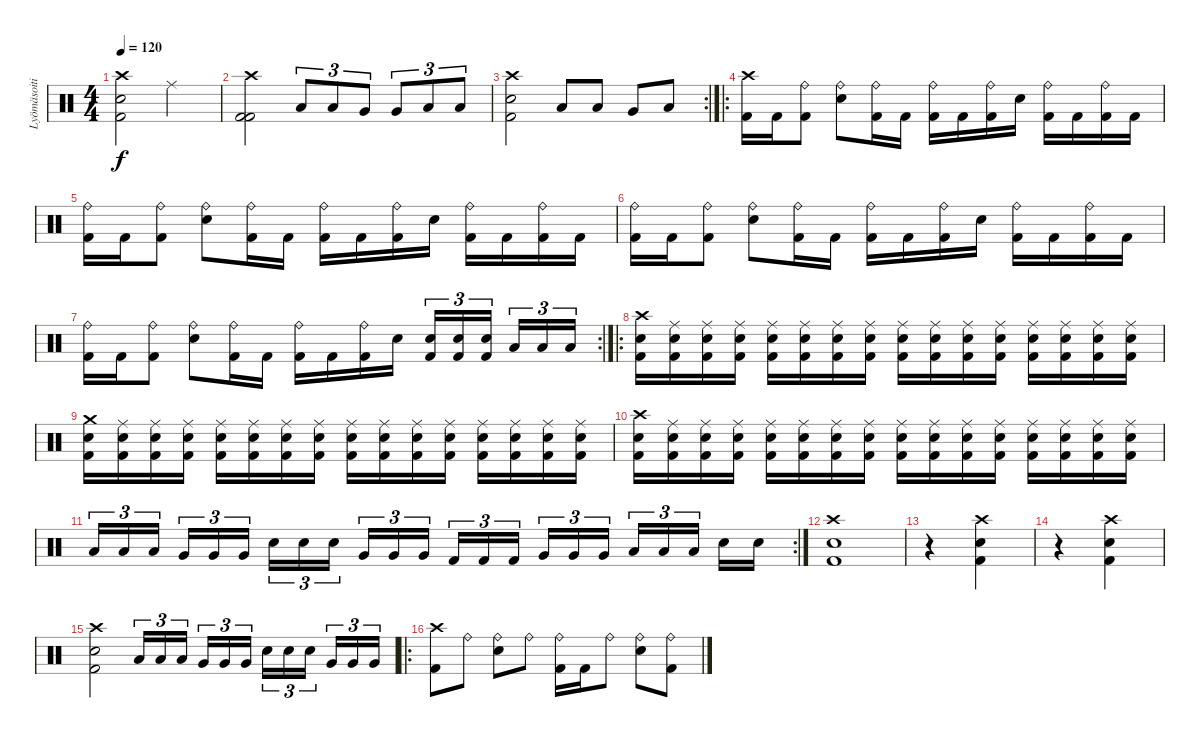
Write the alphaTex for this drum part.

\track ("Lyömäsoitin" "Lyömäsoiti") {instrument percussion}
\staff {score}
\articulation defaults
\ts (4 4)
\tempo 120
\clef neutral
\ks c
("Crash high (hit)" "Electric Snare (hit)" "Kick (hit) 2").2{dy f} "Ride (middle)".2 |
("Crash high (hit)" "Kick (hit) 2" "Kick (hit) 2").2 "Low Tom (hit)".8{tu (3 2)} "Low Tom (hit)".8{tu (3 2)} "Very Low Tom (hit)".8{tu (3 2)} "Very Low Tom (hit)".8{tu (3 2)} "Low Floor Tom (hit)".8{tu (3 2)} "Low Floor Tom (hit)".8{tu (3 2)} |
\rc 2
("Crash high (hit)" "Electric Snare (hit)" "Kick (hit) 2").2 "Low Tom (hit)".8 "Low Tom (hit)".8 "Very Low Tom (hit)".8 "Low Floor Tom (hit)".8 |
\ro
("Crash high (hit)" "Kick (hit) 2").16 "Kick (hit) 2".16 ("Ride (bell)" "Kick (hit) 2").8 ("Ride (bell)" "Electric Snare (hit)").8 ("Ride (bell)" "Kick (hit) 2").16 "Kick (hit) 2".16 ("Ride (bell)" "Kick (hit) 2").16 "Kick (hit) 2".16 ("Ride (bell)" "Kick (hit) 2").16 "Electric Snare (hit)".16 ("Ride (bell)" "Kick (hit) 2").16 "Kick (hit) 2".16 ("Ride (bell)" "Kick (hit) 2").16 "Kick (hit) 2".16 |
("Ride (bell)" "Kick (hit) 2").16 "Kick (hit) 2".16 ("Ride (bell)" "Kick (hit) 2").8 ("Ride (bell)" "Electric Snare (hit)").8 ("Ride (bell)" "Kick (hit) 2").16 "Kick (hit) 2".16 ("Ride (bell)" "Kick (hit) 2").16 "Kick (hit) 2".16 ("Ride (bell)" "Kick (hit) 2").16 "Electric Snare (hit)".16 ("Ride (bell)" "Kick (hit) 2").16 "Kick (hit) 2".16 ("Ride (bell)" "Kick (hit) 2").16 "Kick (hit) 2".16 |
("Ride (bell)" "Kick (hit) 2").16 "Kick (hit) 2".16 ("Ride (bell)" "Kick (hit) 2").8 ("Ride (bell)" "Electric Snare (hit)").8 ("Ride (bell)" "Kick (hit) 2").16 "Kick (hit) 2".16 ("Ride (bell)" "Kick (hit) 2").16 "Kick (hit) 2".16 ("Ride (bell)" "Kick (hit) 2").16 "Electric Snare (hit)".16 ("Ride (bell)" "Kick (hit) 2").16 "Kick (hit) 2".16 ("Ride (bell)" "Kick (hit) 2").16 "Kick (hit) 2".16 |
\rc 2
("Ride (bell)" "Kick (hit) 2").16 "Kick (hit) 2".16 ("Ride (bell)" "Kick (hit) 2").8 ("Ride (bell)" "Electric Snare (hit)").8 ("Ride (bell)" "Kick (hit) 2").16 "Kick (hit) 2".16 ("Ride (bell)" "Kick (hit) 2").16 "Kick (hit) 2".16 ("Ride (bell)" "Kick (hit) 2").16 "Electric Snare (hit)".16 ("Electric Snare (hit)" "Kick (hit) 2").16{tu (3 2)} ("Electric Snare (hit)" "Kick (hit) 2").16{tu (3 2)} ("Electric Snare (hit)" "Kick (hit) 2").16{tu (3 2) beam splitsecondary} "Low Floor Tom (hit)".16{tu (3 2)} "Low Floor Tom (hit)".16{tu (3 2)} "Low Floor Tom (hit)".16{tu (3 2)} |
\ro
("Crash high (hit)" "Electric Snare (hit)" "Kick (hit) 2").16 ("Ride (middle)" "Electric Snare (hit)" "Kick (hit) 2").16 ("Ride (middle)" "Electric Snare (hit)" "Kick (hit) 2").16 ("Ride (middle)" "Electric Snare (hit)" "Kick (hit) 2").16 ("Ride (middle)" "Electric Snare (hit)" "Kick (hit) 2").16 ("Ride (middle)" "Electric Snare (hit)" "Kick (hit) 2").16 ("Ride (middle)" "Electric Snare (hit)" "Kick (hit) 2").16 ("Ride (middle)" "Electric Snare (hit)" "Kick (hit) 2").16 ("Ride (middle)" "Electric Snare (hit)" "Kick (hit) 2").16 ("Ride (middle)" "Electric Snare (hit)" "Kick (hit) 2").16 ("Ride (middle)" "Electric Snare (hit)" "Kick (hit) 2").16 ("Ride (middle)" "Electric Snare (hit)" "Kick (hit) 2").16 ("Ride (middle)" "Electric Snare (hit)" "Kick (hit) 2").16 ("Ride (middle)" "Electric Snare (hit)" "Kick (hit) 2").16 ("Ride (middle)" "Electric Snare (hit)" "Kick (hit) 2").16 ("Ride (middle)" "Electric Snare (hit)" "Kick (hit) 2").16 |
("Crash medium (hit)" "Electric Snare (hit)" "Kick (hit) 2").16 ("Ride (middle)" "Electric Snare (hit)" "Kick (hit) 2").16 ("Ride (middle)" "Electric Snare (hit)" "Kick (hit) 2").16 ("Ride (middle)" "Electric Snare (hit)" "Kick (hit) 2").16 ("Ride (middle)" "Electric Snare (hit)" "Kick (hit) 2").16 ("Ride (middle)" "Electric Snare (hit)" "Kick (hit) 2").16 ("Ride (middle)" "Electric Snare (hit)" "Kick (hit) 2").16 ("Ride (middle)" "Electric Snare (hit)" "Kick (hit) 2").16 ("Ride (middle)" "Electric Snare (hit)" "Kick (hit) 2").16 ("Ride (middle)" "Electric Snare (hit)" "Kick (hit) 2").16 ("Ride (middle)" "Electric Snare (hit)" "Kick (hit) 2").16 ("Ride (middle)" "Electric Snare (hit)" "Kick (hit) 2").16 ("Ride (middle)" "Electric Snare (hit)" "Kick (hit) 2").16 ("Ride (middle)" "Electric Snare (hit)" "Kick (hit) 2").16 ("Ride (middle)" "Electric Snare (hit)" "Kick (hit) 2").16 ("Ride (middle)" "Electric Snare (hit)" "Kick (hit) 2").16 |
("Crash high (hit)" "Electric Snare (hit)" "Kick (hit) 2").16 ("Ride (middle)" "Electric Snare (hit)" "Kick (hit) 2").16 ("Ride (middle)" "Electric Snare (hit)" "Kick (hit) 2").16 ("Ride (middle)" "Electric Snare (hit)" "Kick (hit) 2").16 ("Ride (middle)" "Electric Snare (hit)" "Kick (hit) 2").16 ("Ride (middle)" "Electric Snare (hit)" "Kick (hit) 2").16 ("Ride (middle)" "Electric Snare (hit)" "Kick (hit) 2").16 ("Ride (middle)" "Electric Snare (hit)" "Kick (hit) 2").16 ("Ride (middle)" "Electric Snare (hit)" "Kick (hit) 2").16 ("Ride (middle)" "Electric Snare (hit)" "Kick (hit) 2").16 ("Ride (middle)" "Electric Snare (hit)" "Kick (hit) 2").16 ("Ride (middle)" "Electric Snare (hit)" "Kick (hit) 2").16 ("Ride (middle)" "Electric Snare (hit)" "Kick (hit) 2").16 ("Ride (middle)" "Electric Snare (hit)" "Kick (hit) 2").16 ("Ride (middle)" "Electric Snare (hit)" "Kick (hit) 2").16 ("Ride (middle)" "Electric Snare (hit)" "Kick (hit) 2").16 |
\rc 2 "Low Tom (hit)".16{tu (3 2)} "Low Tom (hit)".16{tu (3 2)} "Low Tom (hit)".16{tu (3 2) beam splitsecondary} "Very Low Tom (hit)".16{tu (3 2)} "Very Low Tom (hit)".16{tu (3 2)} "Very Low Tom (hit)".16{tu (3 2)} "Electric Snare (hit)".16{tu (3 2)} "Electric Snare (hit)".16{tu (3 2)} "Electric Snare (hit)".16{tu (3 2) beam splitsecondary} "Very Low Tom (hit)".16{tu (3 2)} "Very Low Tom (hit)".16{tu (3 2)} "Very Low Tom (hit)".16{tu (3 2)} "Kick (hit) 2".16{tu (3 2)} "Kick (hit) 2".16{tu (3 2)} "Kick (hit) 2".16{tu (3 2) beam splitsecondary} "Very Low Tom (hit)".16{tu (3 2)} "Very Low Tom (hit)".16{tu (3 2)} "Very Low Tom (hit)".16{tu (3 2)} "Low Floor Tom (hit)".16{tu (3 2)} "Low Floor Tom (hit)".16{tu (3 2)} "Low Floor Tom (hit)".16{tu (3 2) beam splitsecondary} "Electric Snare (hit)".16 "Electric Snare (hit)".16
|
("Crash high (hit)" "Electric Snare (hit)" "Kick (hit) 2").1 |
r.4 ("Crash high (hit)" "Electric Snare (hit)" "Kick (hit) 2").4 |
r.4 ("Crash high (hit)" "Electric Snare (hit)" "Kick (hit) 2").4 |
("Crash high (hit)" "Electric Snare (hit)" "Kick (hit) 2").2 "Low Tom (hit)".16{tu (3 2)} "Low Tom (hit)".16{tu (3 2)} "Low Tom (hit)".16{tu (3 2) beam splitsecondary} "Very Low Tom (hit)".16{tu (3 2)} "Very Low Tom (hit)".16{tu (3 2)} "Very Low Tom (hit)".16{tu (3 2)} "Electric Snare (hit)".16{tu (3 2)} "Electric Snare (hit)".16{tu (3 2)} "Electric Snare (hit)".16{tu (3 2) beam splitsecondary} "Very Low Tom (hit)".16{tu (3 2)} "Very Low Tom (hit)".16{tu (3 2)} "Very Low Tom (hit)".16{tu (3 2)} |
\ro
("Crash high (hit)" "Kick (hit) 2").8 "Ride (bell)".8 ("Ride (bell)" "Electric Snare (hit)").8 "Ride (bell)".8 ("Ride (bell)" "Kick (hit) 2").16 "Kick (hit) 2".16 "Ride (bell)".8 ("Ride (bell)" "Electric Snare (hit)").8 ("Ride (bell)" "Kick (hit) 2").8
